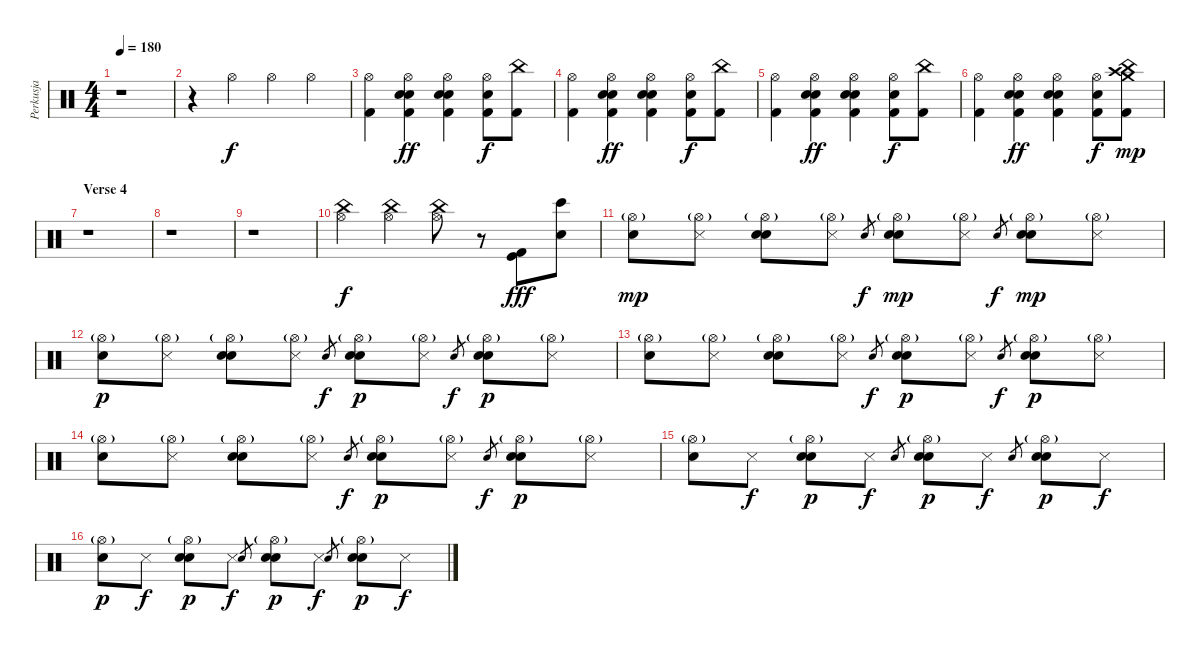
\track ("Perkusja" "Perkusja") {instrument percussion}
\staff {score}
\articulation defaults
\ts (4 4)
\tempo 180
\clef neutral
\ks c
r.1{dy f} |
r.4 "Hi-Hat (open)".4 "Hi-Hat (open)".4 "Hi-Hat (open)".4 |
("Hi-Hat (open)" "Kick (hit) 2").4 ("Hi-Hat (open)" "Electric Snare (hit)" "Snare (hit) 2" "Kick (hit) 2").4{dy ff} ("Hi-Hat (open)" "Electric Snare (hit)" "Snare (hit) 2" "Kick (hit) 2").4 ("Hi-Hat (open)" "Electric Snare (hit)" "Kick (hit) 2").8{dy f} ("China (hit)" "Kick (hit) 2").8 |
("Hi-Hat (open)" "Kick (hit) 2").4 ("Hi-Hat (open)" "Electric Snare (hit)" "Snare (hit) 2" "Kick (hit) 2").4{dy ff} ("Hi-Hat (open)" "Electric Snare (hit)" "Snare (hit) 2" "Kick (hit) 2").4 ("Hi-Hat (open)" "Electric Snare (hit)" "Kick (hit) 2").8{dy f} ("China (hit)" "Kick (hit) 2").8 |
("Hi-Hat (open)" "Kick (hit) 2").4 ("Hi-Hat (open)" "Electric Snare (hit)" "Snare (hit) 2" "Kick (hit) 2").4{dy ff} ("Hi-Hat (open)" "Electric Snare (hit)" "Snare (hit) 2" "Kick (hit) 2").4 ("Hi-Hat (open)" "Electric Snare (hit)" "Kick (hit) 2").8{dy f} ("China (hit)" "Kick (hit) 2").8 |
("Hi-Hat (open)" "Kick (hit) 2").4 ("Hi-Hat (open)" "Electric Snare (hit)" "Snare (hit) 2" "Kick (hit) 2").4{dy ff} ("Hi-Hat (open)" "Electric Snare (hit)" "Snare (hit) 2" "Kick (hit) 2").4 ("Hi-Hat (open)" "Electric Snare (hit)" "Kick (hit) 2").8{dy f} ("Crash high (hit)" "Crash medium (hit)" "China (hit)" "Kick (hit) 2").8{dy mp} |
\section ("" "Verse 4")
r.1 |
r.1 |
r.1 |
("Hi-Hat (open)" "China (hit)").4{dy f} ("Hi-Hat (open)" "China (hit)").4 ("Hi-Hat (open)" "China (hit)").8 r.8 ("Kick (hit) 2" "Kick (hit)").8{dy fff} ("Electric Snare (hit)" "Bongo High (hit)").8 |
("Hi-Hat (open)"{g} "Snare (hit) 2").8{dy mp} ("Hi-Hat (open)"{g} "Snare (side stick) 3").8 ("Hi-Hat (open)"{g} "Electric Snare (hit)" "Metronome (bell)").8 ("Hi-Hat (open)"{g} "Snare (side stick) 3").8 "Snare (hit) 2".8{gr dy f} ("Hi-Hat (open)"{g} "Snare (hit) 2" "Metronome (bell)").8{dy mp} ("Hi-Hat (open)"{g} "Snare (side stick) 3").8 "Electric Snare (hit)".8{gr dy f} ("Hi-Hat (open)"{g} "Electric Snare (hit)" "Metronome (bell)").8{dy mp} ("Hi-Hat (open)"{g} "Snare (side stick) 3").8 |
("Hi-Hat (open)"{g} "Snare (hit) 2").8{dy p} ("Hi-Hat (open)"{g} "Snare (side stick) 3").8 ("Hi-Hat (open)"{g} "Electric Snare (hit)" "Metronome (bell)").8 ("Hi-Hat (open)"{g} "Snare (side stick) 3").8 "Snare (hit) 2".8{gr dy f} ("Hi-Hat (open)"{g} "Snare (hit) 2" "Metronome (bell)").8{dy p} ("Hi-Hat (open)"{g} "Snare (side stick) 3").8 "Electric Snare (hit)".8{gr dy f} ("Hi-Hat (open)"{g} "Electric Snare (hit)" "Metronome (bell)").8{dy p} ("Hi-Hat (open)"{g} "Snare (side stick) 3").8 |
("Hi-Hat (open)"{g} "Snare (hit) 2").8 ("Hi-Hat (open)"{g} "Snare (side stick) 3").8 ("Hi-Hat (open)"{g} "Electric Snare (hit)" "Metronome (bell)").8 ("Hi-Hat (open)"{g} "Snare (side stick) 3").8 "Snare (hit) 2".8{gr dy f} ("Hi-Hat (open)"{g} "Snare (hit) 2" "Metronome (bell)").8{dy p} ("Hi-Hat (open)"{g} "Snare (side stick) 3").8 "Electric Snare (hit)".8{gr dy f} ("Hi-Hat (open)"{g} "Electric Snare (hit)" "Metronome (bell)").8{dy p} ("Hi-Hat (open)"{g} "Snare (side stick) 3").8 |
("Hi-Hat (open)"{g} "Snare (hit) 2").8 ("Hi-Hat (open)"{g} "Snare (side stick) 3").8 ("Hi-Hat (open)"{g} "Electric Snare (hit)" "Metronome (bell)").8 ("Hi-Hat (open)"{g} "Snare (side stick) 3").8 "Snare (hit) 2".8{gr dy f} ("Hi-Hat (open)"{g} "Snare (hit) 2" "Metronome (bell)").8{dy p} ("Hi-Hat (open)"{g} "Snare (side stick) 3").8 "Electric Snare (hit)".8{gr dy f} ("Hi-Hat (open)"{g} "Electric Snare (hit)" "Metronome (bell)").8{dy p} ("Hi-Hat (open)"{g} "Snare (side stick) 3").8 |
("Hi-Hat (open)"{g} "Snare (hit) 2").8 "Snare (side stick) 3".8{dy f} ("Hi-Hat (open)"{g} "Electric Snare (hit)" "Metronome (bell)").8{dy p} "Snare (side stick) 3".8{dy f} "Snare (hit) 2".8{gr} ("Hi-Hat (open)"{g} "Snare (hit) 2" "Metronome (bell)").8{dy p} "Snare (side stick) 3".8{dy f} "Electric Snare (hit)".8{gr} ("Hi-Hat (open)"{g} "Electric Snare (hit)" "Metronome (bell)").8{dy p} "Snare (side stick) 3".8{dy f} |
("Hi-Hat (open)"{g} "Snare (hit) 2").8{dy p} "Snare (side stick) 3".8{dy f} ("Hi-Hat (open)"{g} "Electric Snare (hit)" "Metronome (bell)").8{dy p} "Snare (side stick) 3".8{dy f} "Snare (hit) 2".8{gr} ("Hi-Hat (open)"{g} "Snare (hit) 2" "Metronome (bell)").8{dy p} "Snare (side stick) 3".8{dy f} "Electric Snare (hit)".8{gr} ("Hi-Hat (open)"{g} "Electric Snare (hit)" "Metronome (bell)").8{dy p} "Snare (side stick) 3".8{dy f}
